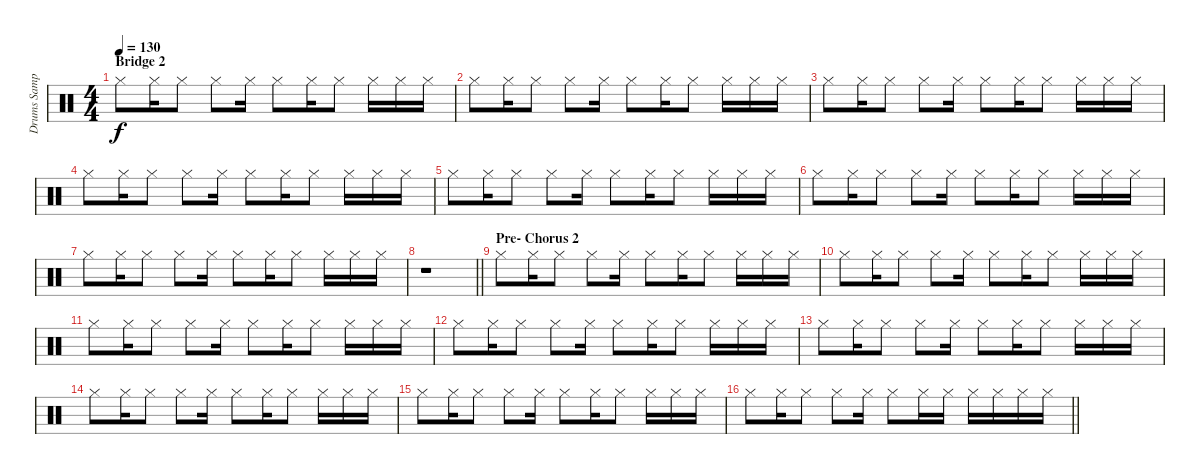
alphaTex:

\track ("Drums Sample" "Drums Samp") {instrument percussion}
\staff {score}
\articulation defaults
\ts (4 4)
\section ("" "Bridge 2")
\tempo 130
\clef neutral
\ks c "Hi-Hat (closed)".8{dy f} "Hi-Hat (closed)".16 "Hi-Hat (closed)".8 "Hi-Hat (closed)".8 "Hi-Hat (closed)".16 "Hi-Hat (closed)".8 "Hi-Hat (closed)".16 "Hi-Hat (closed)".8 "Hi-Hat (closed)".16 "Hi-Hat (closed)".16 "Hi-Hat (closed)".16
|
"Hi-Hat (closed)".8 "Hi-Hat (closed)".16 "Hi-Hat (closed)".8 "Hi-Hat (closed)".8 "Hi-Hat (closed)".16 "Hi-Hat (closed)".8 "Hi-Hat (closed)".16 "Hi-Hat (closed)".8 "Hi-Hat (closed)".16 "Hi-Hat (closed)".16 "Hi-Hat (closed)".16 |
"Hi-Hat (closed)".8 "Hi-Hat (closed)".16 "Hi-Hat (closed)".8 "Hi-Hat (closed)".8 "Hi-Hat (closed)".16 "Hi-Hat (closed)".8 "Hi-Hat (closed)".16 "Hi-Hat (closed)".8 "Hi-Hat (closed)".16 "Hi-Hat (closed)".16 "Hi-Hat (closed)".16 |
"Hi-Hat (closed)".8 "Hi-Hat (closed)".16 "Hi-Hat (closed)".8 "Hi-Hat (closed)".8 "Hi-Hat (closed)".16 "Hi-Hat (closed)".8 "Hi-Hat (closed)".16 "Hi-Hat (closed)".8 "Hi-Hat (closed)".16 "Hi-Hat (closed)".16 "Hi-Hat (closed)".16 |
"Hi-Hat (closed)".8 "Hi-Hat (closed)".16 "Hi-Hat (closed)".8 "Hi-Hat (closed)".8 "Hi-Hat (closed)".16 "Hi-Hat (closed)".8 "Hi-Hat (closed)".16 "Hi-Hat (closed)".8 "Hi-Hat (closed)".16 "Hi-Hat (closed)".16 "Hi-Hat (closed)".16 |
"Hi-Hat (closed)".8 "Hi-Hat (closed)".16 "Hi-Hat (closed)".8 "Hi-Hat (closed)".8 "Hi-Hat (closed)".16 "Hi-Hat (closed)".8 "Hi-Hat (closed)".16 "Hi-Hat (closed)".8 "Hi-Hat (closed)".16 "Hi-Hat (closed)".16 "Hi-Hat (closed)".16 |
"Hi-Hat (closed)".8 "Hi-Hat (closed)".16 "Hi-Hat (closed)".8 "Hi-Hat (closed)".8 "Hi-Hat (closed)".16 "Hi-Hat (closed)".8 "Hi-Hat (closed)".16 "Hi-Hat (closed)".8 "Hi-Hat (closed)".16 "Hi-Hat (closed)".16 "Hi-Hat (closed)".16 |
\barLineRight lightlight
r.1 |
\section ("" "Pre- Chorus 2")
"Hi-Hat (closed)".8 "Hi-Hat (closed)".16 "Hi-Hat (closed)".8 "Hi-Hat (closed)".8 "Hi-Hat (closed)".16 "Hi-Hat (closed)".8 "Hi-Hat (closed)".16 "Hi-Hat (closed)".8 "Hi-Hat (closed)".16 "Hi-Hat (closed)".16 "Hi-Hat (closed)".16 |
"Hi-Hat (closed)".8 "Hi-Hat (closed)".16 "Hi-Hat (closed)".8 "Hi-Hat (closed)".8 "Hi-Hat (closed)".16 "Hi-Hat (closed)".8 "Hi-Hat (closed)".16 "Hi-Hat (closed)".8 "Hi-Hat (closed)".16 "Hi-Hat (closed)".16 "Hi-Hat (closed)".16 |
"Hi-Hat (closed)".8 "Hi-Hat (closed)".16 "Hi-Hat (closed)".8 "Hi-Hat (closed)".8 "Hi-Hat (closed)".16 "Hi-Hat (closed)".8 "Hi-Hat (closed)".16 "Hi-Hat (closed)".8 "Hi-Hat (closed)".16 "Hi-Hat (closed)".16 "Hi-Hat (closed)".16 |
"Hi-Hat (closed)".8 "Hi-Hat (closed)".16 "Hi-Hat (closed)".8 "Hi-Hat (closed)".8 "Hi-Hat (closed)".16 "Hi-Hat (closed)".8 "Hi-Hat (closed)".16 "Hi-Hat (closed)".8 "Hi-Hat (closed)".16 "Hi-Hat (closed)".16 "Hi-Hat (closed)".16 |
"Hi-Hat (closed)".8 "Hi-Hat (closed)".16 "Hi-Hat (closed)".8 "Hi-Hat (closed)".8 "Hi-Hat (closed)".16 "Hi-Hat (closed)".8 "Hi-Hat (closed)".16 "Hi-Hat (closed)".8 "Hi-Hat (closed)".16 "Hi-Hat (closed)".16 "Hi-Hat (closed)".16 |
"Hi-Hat (closed)".8 "Hi-Hat (closed)".16 "Hi-Hat (closed)".8 "Hi-Hat (closed)".8 "Hi-Hat (closed)".16 "Hi-Hat (closed)".8 "Hi-Hat (closed)".16 "Hi-Hat (closed)".8 "Hi-Hat (closed)".16 "Hi-Hat (closed)".16 "Hi-Hat (closed)".16 |
"Hi-Hat (closed)".8 "Hi-Hat (closed)".16 "Hi-Hat (closed)".8 "Hi-Hat (closed)".8 "Hi-Hat (closed)".16 "Hi-Hat (closed)".8 "Hi-Hat (closed)".16 "Hi-Hat (closed)".8 "Hi-Hat (closed)".16 "Hi-Hat (closed)".16 "Hi-Hat (closed)".16 |
\barLineRight lightlight "Hi-Hat (closed)".8 "Hi-Hat (closed)".16 "Hi-Hat (closed)".8 "Hi-Hat (closed)".8 "Hi-Hat (closed)".16 "Hi-Hat (closed)".8 "Hi-Hat (closed)".16 "Hi-Hat (closed)".16 "Hi-Hat (closed)".16 "Hi-Hat (closed)".16 "Hi-Hat (closed)".16 "Hi-Hat (closed)".16
